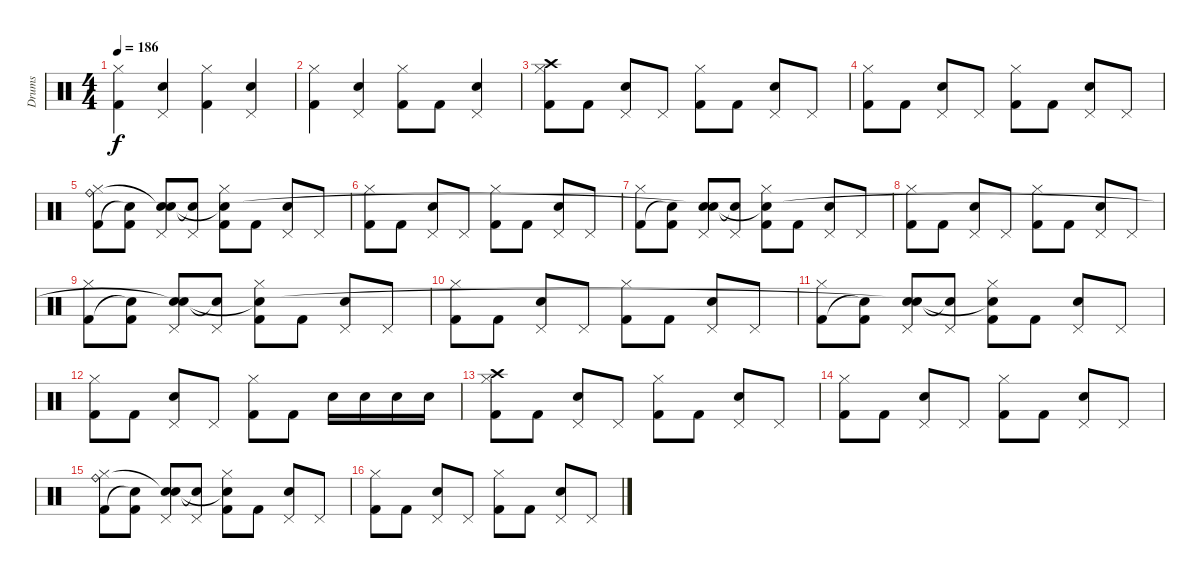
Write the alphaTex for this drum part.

\track ("Drums" "Drums") {instrument percussion}
\staff {score}
\articulation defaults
\ts (4 4)
\tempo 186
\clef neutral
\ks c
("Hi-Hat (closed)" "Kick (hit) 2").4{dy f} ("Pedal Hi-Hat (hit)" "Electric Snare (hit)").4 ("Hi-Hat (closed)" "Kick (hit) 2").4 ("Pedal Hi-Hat (hit)" "Electric Snare (hit)").4 |
("Hi-Hat (closed)" "Kick (hit) 2").4 ("Pedal Hi-Hat (hit)" "Electric Snare (hit)").4 ("Hi-Hat (closed)" "Kick (hit) 2").8 "Kick (hit) 2".8 ("Pedal Hi-Hat (hit)" "Electric Snare (hit)").4 |
("Hi-Hat (closed)" "Kick (hit) 2" "Crash high (hit)").8 "Kick (hit) 2".8 ("Pedal Hi-Hat (hit)" "Electric Snare (hit)").8 "Pedal Hi-Hat (hit)".8 ("Hi-Hat (closed)" "Kick (hit) 2").8 "Kick (hit) 2".8 ("Pedal Hi-Hat (hit)" "Electric Snare (hit)").8 "Pedal Hi-Hat (hit)".8 |
("Hi-Hat (closed)" "Kick (hit) 2").8 "Kick (hit) 2".8 ("Pedal Hi-Hat (hit)" "Electric Snare (hit)").8 "Pedal Hi-Hat (hit)".8 ("Hi-Hat (closed)" "Kick (hit) 2").8 "Kick (hit) 2".8 ("Pedal Hi-Hat (hit)" "Electric Snare (hit)").8 "Pedal Hi-Hat (hit)".8 |
("Hi-Hat (closed)" "Kick (hit) 2" "Ride (bell)").8 ("Kick (hit) 2" "Snare (hit)"{t}).8 ("Pedal Hi-Hat (hit)" "Electric Snare (hit)" "Snare (hit)"{t}).8 ("Pedal Hi-Hat (hit)" "Snare (hit)"{t}).8 ("Hi-Hat (closed)" "Kick (hit) 2" "Snare (hit)"{t}).8 "Kick (hit) 2".8 ("Pedal Hi-Hat (hit)" "Electric Snare (hit)").8 "Pedal Hi-Hat (hit)".8 |
("Hi-Hat (closed)" "Kick (hit) 2").8 "Kick (hit) 2".8 ("Pedal Hi-Hat (hit)" "Electric Snare (hit)").8 "Pedal Hi-Hat (hit)".8 ("Hi-Hat (closed)" "Kick (hit) 2").8 "Kick (hit) 2".8 ("Pedal Hi-Hat (hit)" "Electric Snare (hit)").8 "Pedal Hi-Hat (hit)".8 |
("Hi-Hat (closed)" "Kick (hit) 2").8 ("Kick (hit) 2" "Snare (hit)"{t}).8 ("Pedal Hi-Hat (hit)" "Electric Snare (hit)" "Snare (hit)"{t}).8 ("Pedal Hi-Hat (hit)" "Snare (hit)"{t}).8 ("Hi-Hat (closed)" "Kick (hit) 2" "Snare (hit)"{t}).8 "Kick (hit) 2".8 ("Pedal Hi-Hat (hit)" "Electric Snare (hit)").8 "Pedal Hi-Hat (hit)".8 |
("Hi-Hat (closed)" "Kick (hit) 2").8 "Kick (hit) 2".8 ("Pedal Hi-Hat (hit)" "Electric Snare (hit)").8 "Pedal Hi-Hat (hit)".8 ("Hi-Hat (closed)" "Kick (hit) 2").8 "Kick (hit) 2".8 ("Pedal Hi-Hat (hit)" "Electric Snare (hit)").8 "Pedal Hi-Hat (hit)".8 |
("Hi-Hat (closed)" "Kick (hit) 2").8 ("Kick (hit) 2" "Snare (hit)"{t}).8 ("Pedal Hi-Hat (hit)" "Electric Snare (hit)" "Snare (hit)"{t}).8 ("Pedal Hi-Hat (hit)" "Snare (hit)"{t}).8 ("Hi-Hat (closed)" "Kick (hit) 2" "Snare (hit)"{t}).8 "Kick (hit) 2".8 ("Pedal Hi-Hat (hit)" "Electric Snare (hit)").8 "Pedal Hi-Hat (hit)".8 |
("Hi-Hat (closed)" "Kick (hit) 2").8 "Kick (hit) 2".8 ("Pedal Hi-Hat (hit)" "Electric Snare (hit)").8 "Pedal Hi-Hat (hit)".8 ("Hi-Hat (closed)" "Kick (hit) 2").8 "Kick (hit) 2".8 ("Pedal Hi-Hat (hit)" "Electric Snare (hit)").8 "Pedal Hi-Hat (hit)".8 |
("Hi-Hat (closed)" "Kick (hit) 2").8 ("Kick (hit) 2" "Snare (hit)"{t}).8 ("Pedal Hi-Hat (hit)" "Electric Snare (hit)" "Snare (hit)"{t}).8 ("Pedal Hi-Hat (hit)" "Snare (hit)"{t}).8 ("Hi-Hat (closed)" "Kick (hit) 2" "Snare (hit)"{t}).8 "Kick (hit) 2".8 ("Pedal Hi-Hat (hit)" "Electric Snare (hit)").8 "Pedal Hi-Hat (hit)".8 |
("Hi-Hat (closed)" "Kick (hit) 2").8 "Kick (hit) 2".8 ("Pedal Hi-Hat (hit)" "Electric Snare (hit)").8 "Pedal Hi-Hat (hit)".8 ("Hi-Hat (closed)" "Kick (hit) 2").8 "Kick (hit) 2".8 "Electric Snare (hit)".16 "Electric Snare (hit)".16 "Electric Snare (hit)".16 "Electric Snare (hit)".16 |
("Hi-Hat (closed)" "Kick (hit) 2" "Crash high (hit)").8 "Kick (hit) 2".8 ("Pedal Hi-Hat (hit)" "Electric Snare (hit)").8 "Pedal Hi-Hat (hit)".8 ("Hi-Hat (closed)" "Kick (hit) 2").8 "Kick (hit) 2".8 ("Pedal Hi-Hat (hit)" "Electric Snare (hit)").8 "Pedal Hi-Hat (hit)".8 |
("Hi-Hat (closed)" "Kick (hit) 2").8 "Kick (hit) 2".8 ("Pedal Hi-Hat (hit)" "Electric Snare (hit)").8 "Pedal Hi-Hat (hit)".8 ("Hi-Hat (closed)" "Kick (hit) 2").8 "Kick (hit) 2".8 ("Pedal Hi-Hat (hit)" "Electric Snare (hit)").8 "Pedal Hi-Hat (hit)".8 |
("Hi-Hat (closed)" "Kick (hit) 2" "Ride (bell)").8 ("Kick (hit) 2" "Snare (hit)"{t}).8 ("Pedal Hi-Hat (hit)" "Electric Snare (hit)" "Snare (hit)"{t}).8 ("Pedal Hi-Hat (hit)" "Snare (hit)"{t}).8 ("Hi-Hat (closed)" "Kick (hit) 2" "Snare (hit)"{t}).8 "Kick (hit) 2".8 ("Pedal Hi-Hat (hit)" "Electric Snare (hit)").8 "Pedal Hi-Hat (hit)".8 |
("Hi-Hat (closed)" "Kick (hit) 2").8 "Kick (hit) 2".8 ("Pedal Hi-Hat (hit)" "Electric Snare (hit)").8 "Pedal Hi-Hat (hit)".8 ("Hi-Hat (closed)" "Kick (hit) 2").8 "Kick (hit) 2".8 ("Pedal Hi-Hat (hit)" "Electric Snare (hit)").8 "Pedal Hi-Hat (hit)".8
